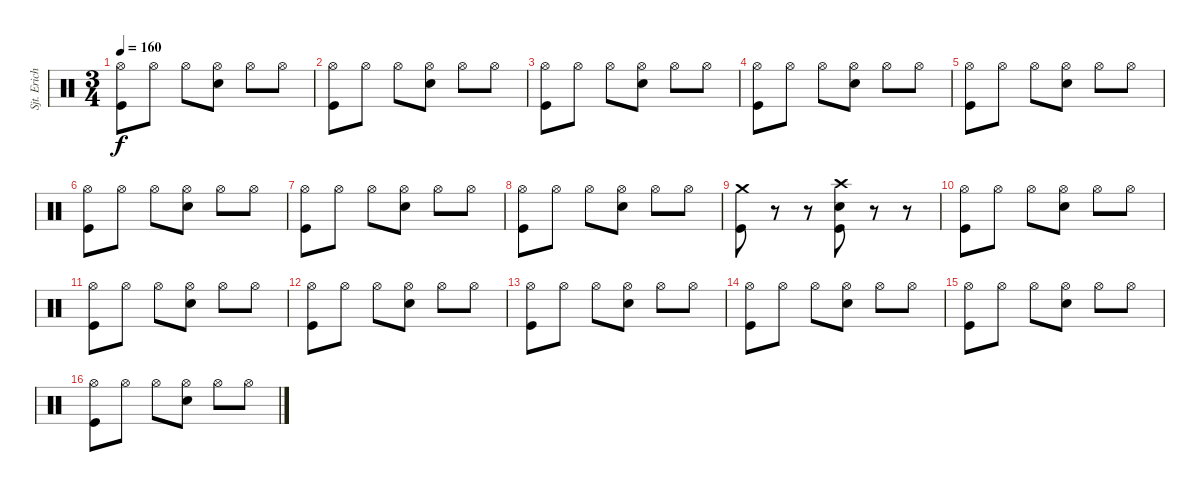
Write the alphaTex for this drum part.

\track ("Sjt. Erichsen" "Sjt. Erich") {instrument percussion}
\staff {score}
\articulation defaults
\ts (3 4)
\tempo 160
\clef neutral
\ks c
("Hi-Hat (open)" "Kick (hit)").8{dy f} "Hi-Hat (open)".8 "Hi-Hat (open)".8 ("Hi-Hat (open)" "Electric Snare (hit)").8 "Hi-Hat (open)".8 "Hi-Hat (open)".8 |
("Hi-Hat (open)" "Kick (hit)").8 "Hi-Hat (open)".8 "Hi-Hat (open)".8 ("Hi-Hat (open)" "Electric Snare (hit)").8 "Hi-Hat (open)".8 "Hi-Hat (open)".8 |
("Hi-Hat (open)" "Kick (hit)").8 "Hi-Hat (open)".8 "Hi-Hat (open)".8 ("Hi-Hat (open)" "Electric Snare (hit)").8 "Hi-Hat (open)".8 "Hi-Hat (open)".8 |
("Hi-Hat (open)" "Kick (hit)").8 "Hi-Hat (open)".8 "Hi-Hat (open)".8 ("Hi-Hat (open)" "Electric Snare (hit)").8 "Hi-Hat (open)".8 "Hi-Hat (open)".8 |
("Hi-Hat (open)" "Kick (hit)").8 "Hi-Hat (open)".8 "Hi-Hat (open)".8 ("Hi-Hat (open)" "Electric Snare (hit)").8 "Hi-Hat (open)".8 "Hi-Hat (open)".8 |
("Hi-Hat (open)" "Kick (hit)").8 "Hi-Hat (open)".8 "Hi-Hat (open)".8 ("Hi-Hat (open)" "Electric Snare (hit)").8 "Hi-Hat (open)".8 "Hi-Hat (open)".8 |
("Hi-Hat (open)" "Kick (hit)").8 "Hi-Hat (open)".8 "Hi-Hat (open)".8 ("Hi-Hat (open)" "Electric Snare (hit)").8 "Hi-Hat (open)".8 "Hi-Hat (open)".8 |
("Hi-Hat (open)" "Kick (hit)").8 "Hi-Hat (open)".8 "Hi-Hat (open)".8 ("Hi-Hat (open)" "Electric Snare (hit)").8 "Hi-Hat (open)".8 "Hi-Hat (open)".8 |
("Crash medium (hit)" "Kick (hit)").8 r.8 r.8 ("Crash high (hit)" "Electric Snare (hit)" "Kick (hit)").8 r.8 r.8 |
("Hi-Hat (open)" "Kick (hit)").8 "Hi-Hat (open)".8 "Hi-Hat (open)".8 ("Hi-Hat (open)" "Electric Snare (hit)").8 "Hi-Hat (open)".8 "Hi-Hat (open)".8 |
("Hi-Hat (open)" "Kick (hit)").8 "Hi-Hat (open)".8 "Hi-Hat (open)".8 ("Hi-Hat (open)" "Electric Snare (hit)").8 "Hi-Hat (open)".8 "Hi-Hat (open)".8 |
("Hi-Hat (open)" "Kick (hit)").8 "Hi-Hat (open)".8 "Hi-Hat (open)".8 ("Hi-Hat (open)" "Electric Snare (hit)").8 "Hi-Hat (open)".8 "Hi-Hat (open)".8 |
("Hi-Hat (open)" "Kick (hit)").8 "Hi-Hat (open)".8 "Hi-Hat (open)".8 ("Hi-Hat (open)" "Electric Snare (hit)").8 "Hi-Hat (open)".8 "Hi-Hat (open)".8 |
("Hi-Hat (open)" "Kick (hit)").8 "Hi-Hat (open)".8 "Hi-Hat (open)".8 ("Hi-Hat (open)" "Electric Snare (hit)").8 "Hi-Hat (open)".8 "Hi-Hat (open)".8 |
("Hi-Hat (open)" "Kick (hit)").8 "Hi-Hat (open)".8 "Hi-Hat (open)".8 ("Hi-Hat (open)" "Electric Snare (hit)").8 "Hi-Hat (open)".8 "Hi-Hat (open)".8 |
("Hi-Hat (open)" "Kick (hit)").8 "Hi-Hat (open)".8 "Hi-Hat (open)".8 ("Hi-Hat (open)" "Electric Snare (hit)").8 "Hi-Hat (open)".8 "Hi-Hat (open)".8
